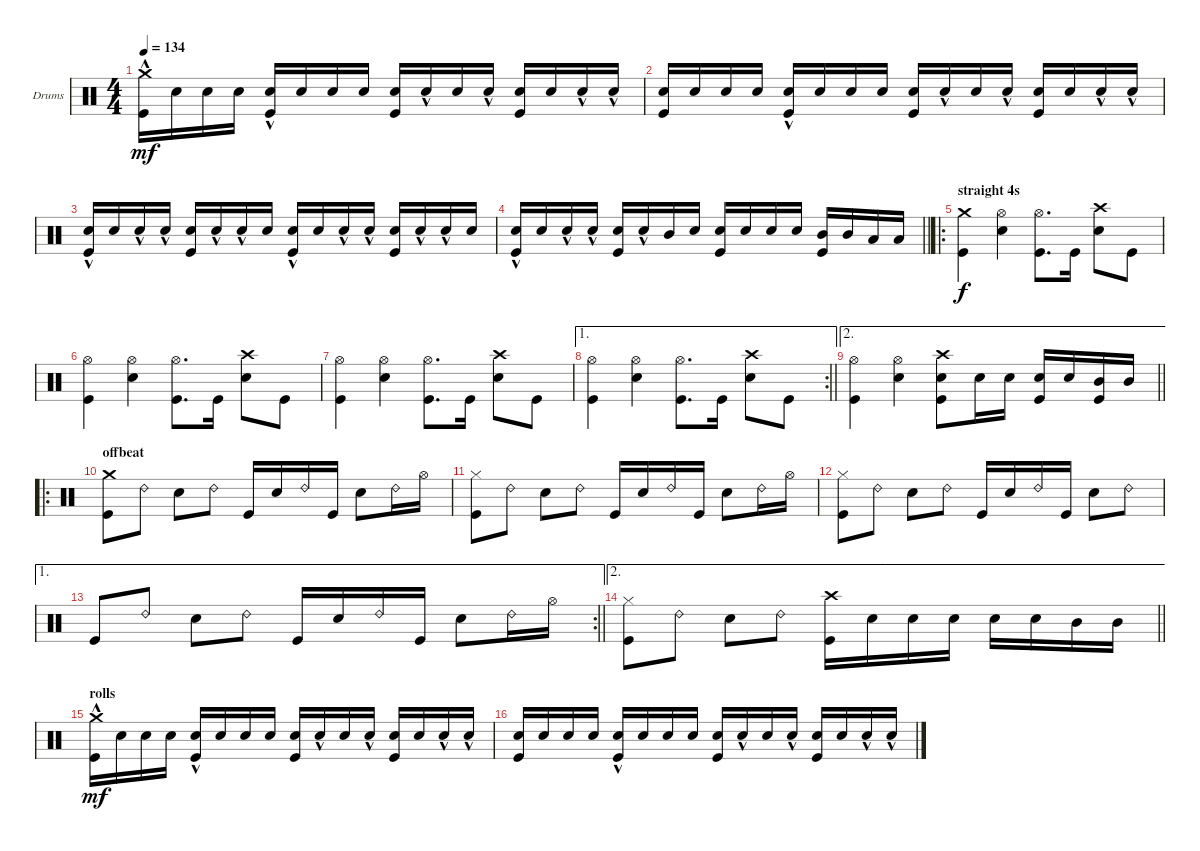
\bracketExtendMode groupsimilarinstruments
\firstSystemTrackNameOrientation horizontal
\otherSystemsTrackNameOrientation horizontal
\track ("Drumkit" "Drums") {instrument percussion}
\staff {score}
\articulation defaults
\ts (4 4)
\tempo 134
\clef neutral
\ks c
("Crash medium (hit)"{hac} "Kick (hit)").16{dy mf} "Snare (hit) 2".16 "Snare (hit) 2".16 "Snare (hit) 2".16 ("Snare (hit) 2"{hac} "Kick (hit)").16 "Snare (hit) 2".16 "Snare (hit) 2".16 "Snare (hit) 2".16 ("Snare (hit) 2" "Kick (hit)").16 "Snare (hit) 2"{hac}.16 "Snare (hit) 2".16 "Snare (hit) 2"{hac}.16 ("Snare (hit) 2" "Kick (hit)").16 "Snare (hit) 2".16 "Snare (hit) 2"{hac}.16 "Snare (hit) 2"{hac}.16 |
("Snare (hit) 2" "Kick (hit)").16 "Snare (hit) 2".16 "Snare (hit) 2".16 "Snare (hit) 2".16 ("Snare (hit) 2"{hac} "Kick (hit)").16 "Snare (hit) 2".16 "Snare (hit) 2".16 "Snare (hit) 2".16 ("Snare (hit) 2" "Kick (hit)").16 "Snare (hit) 2"{hac}.16 "Snare (hit) 2".16 "Snare (hit) 2"{hac}.16 ("Snare (hit) 2" "Kick (hit)").16 "Snare (hit) 2".16 "Snare (hit) 2"{hac}.16 "Snare (hit) 2"{hac}.16 |
("Snare (hit) 2"{hac} "Kick (hit)").16 "Snare (hit) 2".16 "Snare (hit) 2"{hac}.16 "Snare (hit) 2"{hac}.16 ("Snare (hit) 2" "Kick (hit)").16 "Snare (hit) 2"{hac}.16 "Snare (hit) 2"{hac}.16 "Snare (hit) 2".16 ("Snare (hit) 2"{hac} "Kick (hit)").16 "Snare (hit) 2".16 "Snare (hit) 2"{hac}.16 "Snare (hit) 2"{hac}.16 ("Snare (hit) 2" "Kick (hit)").16 "Snare (hit) 2"{hac}.16 "Snare (hit) 2"{hac}.16 "Snare (hit) 2".16 |
\barLineRight lightlight
("Snare (hit) 2"{hac} "Kick (hit)").16 "Snare (hit) 2".16 "Snare (hit) 2"{hac}.16 "Snare (hit) 2"{hac}.16 ("Snare (hit) 2" "Kick (hit)").16 "Snare (hit) 2"{hac}.16 "Mid Tom (hit)".16 "Snare (hit) 2".16 ("Snare (hit) 2" "Kick (hit)").16 "Snare (hit) 2".16 "Snare (hit) 2".16 "Snare (hit) 2".16 ("Mid Tom (hit)" "Kick (hit)").16 "Mid Tom (hit)".16 "Low Tom (hit)".16 "Low Tom (hit)".16 |
\ro
\section ("" "straight 4s")
("Crash medium (hit)" "Kick (hit)").4{dy f} ("Hi-Hat (open)" "Snare (hit) 2").4 ("Hi-Hat (open)" "Kick (hit)").8{d} "Kick (hit)".16 ("Crash high (hit)" "Snare (hit) 2").8 "Kick (hit)".8 |
("Hi-Hat (open)" "Kick (hit)").4 ("Hi-Hat (open)" "Snare (hit) 2").4 ("Hi-Hat (open)" "Kick (hit)").8{d} "Kick (hit)".16 ("Crash high (hit)" "Snare (hit) 2").8 "Kick (hit)".8 |
("Hi-Hat (open)" "Kick (hit)").4 ("Hi-Hat (open)" "Snare (hit) 2").4 ("Hi-Hat (open)" "Kick (hit)").8{d} "Kick (hit)".16 ("Crash high (hit)" "Snare (hit) 2").8 "Kick (hit)".8 |
\ae 1
\rc 2
\barLineRight lightlight
("Hi-Hat (open)" "Kick (hit)").4 ("Hi-Hat (open)" "Snare (hit) 2").4 ("Hi-Hat (open)" "Kick (hit)").8{d} "Kick (hit)".16 ("Crash high (hit)" "Snare (hit) 2").8 "Kick (hit)".8 |
\ae 2
\barLineRight lightlight
("Hi-Hat (open)" "Kick (hit)").4 ("Hi-Hat (open)" "Snare (hit) 2").4 ("Crash high (hit)" "Snare (hit) 2" "Kick (hit)").8 "Snare (hit) 2".16 "Snare (hit) 2".16 ("Snare (hit) 2" "Kick (hit)").16 "Snare (hit) 2".16 ("Mid Tom (hit)" "Kick (hit)").16 "Mid Tom (hit)".16 |
\ro
\section ("" "offbeat")
("Crash medium (hit)" "Kick (hit)").8 "Ride (bell) 2".8 "Snare (hit) 2".8 "Ride (bell) 2".8 "Kick (hit)".16 "Snare (hit) 2".16 "Ride (bell) 2".16 "Kick (hit)".16 "Snare (hit) 2".8 "Ride (bell) 2".16 "Hi-Hat (open)".16 |
("Kick (hit)" "Hi-Hat (closed)").8 "Ride (bell) 2".8 "Snare (hit) 2".8 "Ride (bell) 2".8 "Kick (hit)".16 "Snare (hit) 2".16 "Ride (bell) 2".16 "Kick (hit)".16 "Snare (hit) 2".8 "Ride (bell) 2".16 "Hi-Hat (open)".16 |
("Kick (hit)" "Hi-Hat (closed)").8 "Ride (bell) 2".8 "Snare (hit) 2".8 "Ride (bell) 2".8 "Kick (hit)".16 "Snare (hit) 2".16 "Ride (bell) 2".16 "Kick (hit)".16 "Snare (hit) 2".8 "Ride (bell) 2".8 |
\ae 1
\rc 2
\barLineRight lightlight "Kick (hit)".8 "Ride (bell) 2".8 "Snare (hit) 2".8 "Ride (bell) 2".8 "Kick (hit)".16 "Snare (hit) 2".16 "Ride (bell) 2".16 "Kick (hit)".16 "Snare (hit) 2".8 "Ride (bell) 2".16 "Hi-Hat (open)".16
|
\ae 2
\barLineRight lightlight
("Kick (hit)" "Hi-Hat (closed)").8 "Ride (bell) 2".8 "Snare (hit) 2".8 "Ride (bell) 2".8 ("Crash high (hit)" "Kick (hit)").16 "Snare (hit) 2".16 "Snare (hit) 2".16 "Snare (hit) 2".16 "Snare (hit) 2".16 "Snare (hit) 2".16 "Mid Tom (hit)".16 "Mid Tom (hit)".16 |
\section ("" "rolls")
("Crash medium (hit)"{hac} "Kick (hit)").16{dy mf} "Snare (hit) 2".16 "Snare (hit) 2".16 "Snare (hit) 2".16 ("Snare (hit) 2"{hac} "Kick (hit)").16 "Snare (hit) 2".16 "Snare (hit) 2".16 "Snare (hit) 2".16 ("Snare (hit) 2" "Kick (hit)").16 "Snare (hit) 2"{hac}.16 "Snare (hit) 2".16 "Snare (hit) 2"{hac}.16 ("Snare (hit) 2" "Kick (hit)").16 "Snare (hit) 2".16 "Snare (hit) 2"{hac}.16 "Snare (hit) 2"{hac}.16 |
("Snare (hit) 2" "Kick (hit)").16 "Snare (hit) 2".16 "Snare (hit) 2".16 "Snare (hit) 2".16 ("Snare (hit) 2"{hac} "Kick (hit)").16 "Snare (hit) 2".16 "Snare (hit) 2".16 "Snare (hit) 2".16 ("Snare (hit) 2" "Kick (hit)").16 "Snare (hit) 2"{hac}.16 "Snare (hit) 2".16 "Snare (hit) 2"{hac}.16 ("Snare (hit) 2" "Kick (hit)").16 "Snare (hit) 2".16 "Snare (hit) 2"{hac}.16 "Snare (hit) 2"{hac}.16
